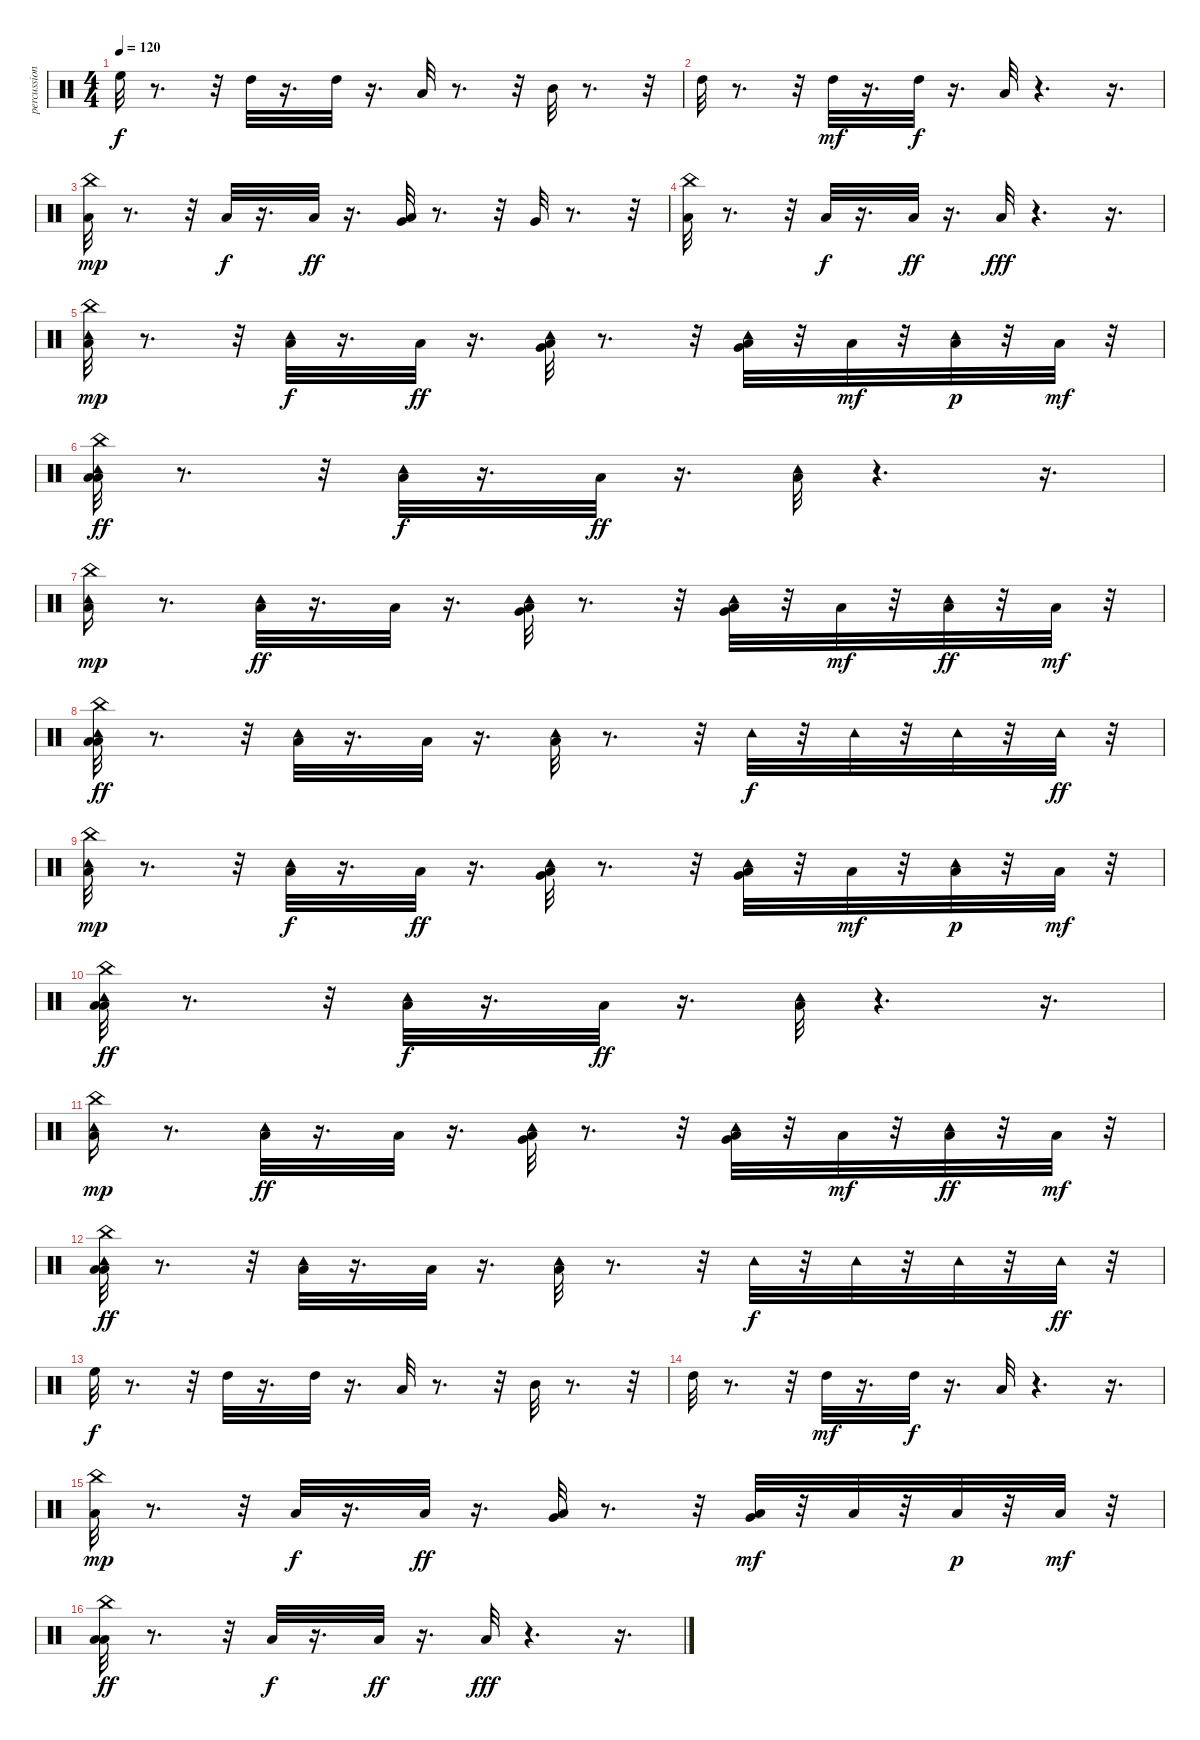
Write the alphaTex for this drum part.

\track ("percussion" "percussion") {instrument percussion}
\staff {score}
\articulation defaults
\ts (4 4)
\tempo 120
\clef neutral
\ks c "High Floor Tom (hit)".32{dy f}
r.8{d} r.32 "High Tom (hit)".32 r.16{d} "High Tom (hit)".32 r.16{d} "Low Tom (hit)".32 r.8{d} r.32 "Mid Tom (hit)".32 r.8{d} r.32 |
"High Tom (hit)".32 r.8{d} r.32 "High Tom (hit)".32{dy mf} r.16{d} "High Tom (hit)".32{dy f} r.16{d} "Low Tom (hit)".32 r.4{d} r.16{d} |
("Low Floor Tom (hit)" "China (hit)").32{dy mp} r.8{d} r.32 "Low Floor Tom (hit)".32{dy f} r.16{d} "Low Floor Tom (hit)".32{dy ff} r.16{d} ("Low Floor Tom (hit)" "Very Low Tom (hit)").32 r.8{d} r.32 "Very Low Tom (hit)".32 r.8{d} r.32 |
("Low Floor Tom (hit)" "China (hit)").32 r.8{d} r.32 "Low Floor Tom (hit)".32{dy f} r.16{d} "Low Floor Tom (hit)".32{dy ff} r.16{d} "Low Floor Tom (hit)".32{dy fff} r.4{d} r.16{d} |
("Low Floor Tom (hit)" "China (hit)" "Tambourine (hit)").32{dy mp} r.8{d} r.32 ("Low Floor Tom (hit)" "Tambourine (hit)").32{dy f} r.16{d} "Low Floor Tom (hit)".32{dy ff} r.16{d} ("Low Floor Tom (hit)" "Very Low Tom (hit)" "Tambourine (hit)").32 r.8{d} r.32 ("Very Low Tom (hit)" "Low Floor Tom (hit)" "Tambourine (hit)").32 r.32 "Low Floor Tom (hit)".32{dy mf} r.32 ("Low Floor Tom (hit)" "Tambourine (hit)").32{dy p} r.32 "Low Floor Tom (hit)".32{dy mf} r.32 |
("Low Floor Tom (hit)" "China (hit)" "Low Floor Tom (hit)" "Tambourine (hit)").32{dy ff} r.8{d} r.32 ("Low Floor Tom (hit)" "Tambourine (hit)").32{dy f} r.16{d} "Low Floor Tom (hit)".32{dy ff} r.16{d} ("Low Floor Tom (hit)" "Tambourine (hit)").32 r.4{d} r.16{d} |
("Low Floor Tom (hit)" "China (hit)" "Tambourine (hit)").16{dy mp} r.8{d} ("Low Floor Tom (hit)" "Tambourine (hit)").32{dy ff} r.16{d} "Low Floor Tom (hit)".32 r.16{d} ("Low Floor Tom (hit)" "Very Low Tom (hit)" "Tambourine (hit)").32 r.8{d} r.32 ("Very Low Tom (hit)" "Low Floor Tom (hit)" "Tambourine (hit)").32 r.32 "Low Floor Tom (hit)".32{dy mf} r.32 ("Low Floor Tom (hit)" "Tambourine (hit)").32{dy ff} r.32 "Low Floor Tom (hit)".32{dy mf} r.32 |
("Low Floor Tom (hit)" "China (hit)" "Low Floor Tom (hit)" "Tambourine (hit)").32{dy ff} r.8{d} r.32 ("Low Floor Tom (hit)" "Tambourine (hit)").32 r.16{d} "Low Floor Tom (hit)".32 r.16{d} ("Low Floor Tom (hit)" "Tambourine (hit)").32 r.8{d} r.32 "Tambourine (hit)".32{dy f} r.32 "Tambourine (hit)".32 r.32 "Tambourine (hit)".32 r.32 "Tambourine (hit)".32{dy ff} r.32 |
("Low Floor Tom (hit)" "China (hit)" "Tambourine (hit)").32{dy mp} r.8{d} r.32 ("Low Floor Tom (hit)" "Tambourine (hit)").32{dy f} r.16{d} "Low Floor Tom (hit)".32{dy ff} r.16{d} ("Low Floor Tom (hit)" "Very Low Tom (hit)" "Tambourine (hit)").32 r.8{d} r.32 ("Very Low Tom (hit)" "Low Floor Tom (hit)" "Tambourine (hit)").32 r.32 "Low Floor Tom (hit)".32{dy mf} r.32 ("Low Floor Tom (hit)" "Tambourine (hit)").32{dy p} r.32 "Low Floor Tom (hit)".32{dy mf} r.32 |
("Low Floor Tom (hit)" "China (hit)" "Low Floor Tom (hit)" "Tambourine (hit)").32{dy ff} r.8{d} r.32 ("Low Floor Tom (hit)" "Tambourine (hit)").32{dy f} r.16{d} "Low Floor Tom (hit)".32{dy ff} r.16{d} ("Low Floor Tom (hit)" "Tambourine (hit)").32 r.4{d} r.16{d} |
("Low Floor Tom (hit)" "China (hit)" "Tambourine (hit)").16{dy mp} r.8{d} ("Low Floor Tom (hit)" "Tambourine (hit)").32{dy ff} r.16{d} "Low Floor Tom (hit)".32 r.16{d} ("Low Floor Tom (hit)" "Very Low Tom (hit)" "Tambourine (hit)").32 r.8{d} r.32 ("Very Low Tom (hit)" "Low Floor Tom (hit)" "Tambourine (hit)").32 r.32 "Low Floor Tom (hit)".32{dy mf} r.32 ("Low Floor Tom (hit)" "Tambourine (hit)").32{dy ff} r.32 "Low Floor Tom (hit)".32{dy mf} r.32 |
("Low Floor Tom (hit)" "China (hit)" "Low Floor Tom (hit)" "Tambourine (hit)").32{dy ff} r.8{d} r.32 ("Low Floor Tom (hit)" "Tambourine (hit)").32 r.16{d} "Low Floor Tom (hit)".32 r.16{d} ("Low Floor Tom (hit)" "Tambourine (hit)").32 r.8{d} r.32 "Tambourine (hit)".32{dy f} r.32 "Tambourine (hit)".32 r.32 "Tambourine (hit)".32 r.32 "Tambourine (hit)".32{dy ff} r.32 |
"High Floor Tom (hit)".32{dy f} r.8{d} r.32 "High Tom (hit)".32 r.16{d} "High Tom (hit)".32 r.16{d} "Low Tom (hit)".32 r.8{d} r.32 "Mid Tom (hit)".32 r.8{d} r.32 |
"High Tom (hit)".32 r.8{d} r.32 "High Tom (hit)".32{dy mf} r.16{d} "High Tom (hit)".32{dy f} r.16{d} "Low Tom (hit)".32 r.4{d} r.16{d} |
("Low Floor Tom (hit)" "China (hit)").32{dy mp} r.8{d} r.32 "Low Floor Tom (hit)".32{dy f} r.16{d} "Low Floor Tom (hit)".32{dy ff} r.16{d} ("Low Floor Tom (hit)" "Very Low Tom (hit)").32 r.8{d} r.32 ("Very Low Tom (hit)" "Low Floor Tom (hit)").32{dy mf} r.32 "Low Floor Tom (hit)".32 r.32 "Low Floor Tom (hit)".32{dy p} r.32 "Low Floor Tom (hit)".32{dy mf} r.32 |
("Low Floor Tom (hit)" "China (hit)" "Low Floor Tom (hit)").32{dy ff} r.8{d} r.32 "Low Floor Tom (hit)".32{dy f} r.16{d} "Low Floor Tom (hit)".32{dy ff} r.16{d} "Low Floor Tom (hit)".32{dy fff} r.4{d} r.16{d}
